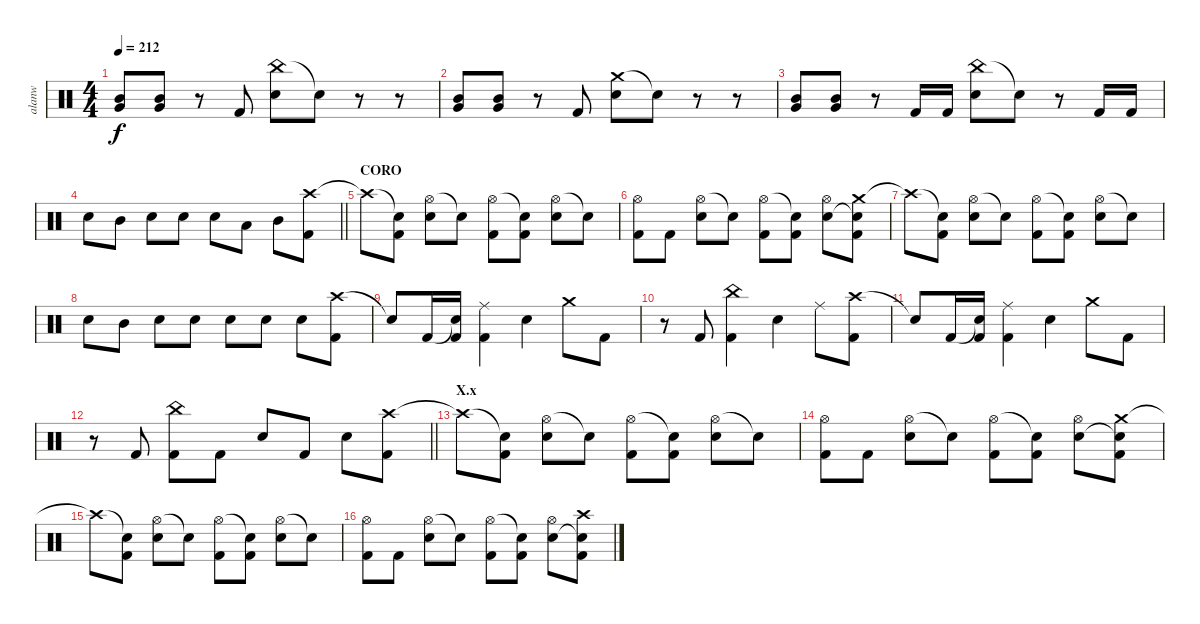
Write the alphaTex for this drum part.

\track ("alanw" "alanw") {instrument percussion}
\staff {score}
\articulation defaults
\ts (4 4)
\tempo 212
\clef neutral
\ks c
("Mid Tom (hit)" "Very Low Tom (hit)").8{dy f} ("Mid Tom (hit)" "Very Low Tom (hit)").8 r.8 "Kick (hit) 2".8 ("China (hit)" "Electric Snare (hit)").8 "Snare (hit)"{t}.8 r.8 r.8 |
("Mid Tom (hit)" "Very Low Tom (hit)").8 ("Mid Tom (hit)" "Very Low Tom (hit)").8 r.8 "Kick (hit) 2".8 ("Crash medium (hit)" "Electric Snare (hit)").8 "Snare (hit)"{t}.8 r.8 r.8 |
("Mid Tom (hit)" "Very Low Tom (hit)").8 ("Mid Tom (hit)" "Very Low Tom (hit)").8 r.8 "Kick (hit) 2".16 "Kick (hit) 2".16 ("China (hit)" "Electric Snare (hit)").8 "Snare (hit)"{t}.8 r.8 "Kick (hit) 2".16 "Kick (hit) 2".16 |
\barLineRight lightlight "Electric Snare (hit)".8 "Mid Tom (hit)".8 "Electric Snare (hit)".8 "Electric Snare (hit)".8 "Electric Snare (hit)".8 "Low Tom (hit)".8 "Mid Tom (hit)".8
("Crash high (hit)" "Kick (hit) 2").8 |
\section ("" "CORO")
"Crash high (hit)"{t}.8 ("Snare (hit)"{t} "Kick (hit) 2").8 ("Hi-Hat (open)" "Electric Snare (hit)").8 "Snare (hit)"{t}.8 ("Hi-Hat (open)" "Kick (hit) 2").8 ("Snare (hit)"{t} "Kick (hit) 2").8 ("Hi-Hat (open)" "Electric Snare (hit)").8 "Snare (hit)"{t}.8 |
("Hi-Hat (open)" "Kick (hit) 2").8 "Kick (hit) 2".8 ("Hi-Hat (open)" "Electric Snare (hit)").8 "Snare (hit)"{t}.8 ("Hi-Hat (open)" "Kick (hit) 2").8 ("Snare (hit)"{t} "Kick (hit) 2").8 ("Hi-Hat (open)" "Electric Snare (hit)").8 ("Crash medium (hit)" "Snare (hit)"{t} "Kick (hit) 2").8 |
"Crash high (hit)"{t}.8 ("Snare (hit)"{t} "Kick (hit) 2").8 ("Hi-Hat (open)" "Electric Snare (hit)").8 "Snare (hit)"{t}.8 ("Hi-Hat (open)" "Kick (hit) 2").8 ("Snare (hit)"{t} "Kick (hit) 2").8 ("Hi-Hat (open)" "Electric Snare (hit)").8 "Snare (hit)"{t}.8 |
"Electric Snare (hit)".8 "Mid Tom (hit)".8 "Electric Snare (hit)".8 "Electric Snare (hit)".8 "Electric Snare (hit)".8 "Electric Snare (hit)".8 "Electric Snare (hit)".8 ("Crash high (hit)" "Kick (hit) 2").8 |
"Snare (hit)"{t}.8 "Kick (hit) 2".16 ("Snare (hit)"{t} "Kick (hit) 2").16 ("Ride (middle)" "Kick (hit) 2").4 "Electric Snare (hit)".4 "Crash medium (hit)".8 "Kick (hit) 2".8 |
r.8 "Kick (hit) 2".8 ("China (hit)" "Kick (hit) 2").4 "Electric Snare (hit)".4 "Ride (middle)".8 ("Crash high (hit)" "Kick (hit) 2").8 |
"Snare (hit)"{t}.8 "Kick (hit) 2".16 ("Snare (hit)"{t} "Kick (hit) 2").16 ("Ride (middle)" "Kick (hit) 2").4 "Electric Snare (hit)".4 "Crash medium (hit)".8 "Kick (hit) 2".8 |
\barLineRight lightlight
r.8 "Kick (hit) 2".8 ("China (hit)" "Kick (hit) 2").8 "Kick (hit) 2".8 "Electric Snare (hit)".8 "Kick (hit) 2".8 "Electric Snare (hit)".8 ("Crash high (hit)" "Kick (hit) 2").8 |
\section ("" "X.x")
"Crash high (hit)"{t}.8 ("Snare (hit)"{t} "Kick (hit) 2").8 ("Hi-Hat (open)" "Electric Snare (hit)").8 "Snare (hit)"{t}.8 ("Hi-Hat (open)" "Kick (hit) 2").8 ("Snare (hit)"{t} "Kick (hit) 2").8 ("Hi-Hat (open)" "Electric Snare (hit)").8 "Snare (hit)"{t}.8 |
("Hi-Hat (open)" "Kick (hit) 2").8 "Kick (hit) 2".8 ("Hi-Hat (open)" "Electric Snare (hit)").8 "Snare (hit)"{t}.8 ("Hi-Hat (open)" "Kick (hit) 2").8 ("Snare (hit)"{t} "Kick (hit) 2").8 ("Hi-Hat (open)" "Electric Snare (hit)").8 ("Crash medium (hit)" "Snare (hit)"{t} "Kick (hit) 2").8 |
"Crash high (hit)"{t}.8 ("Snare (hit)"{t} "Kick (hit) 2").8 ("Hi-Hat (open)" "Electric Snare (hit)").8 "Snare (hit)"{t}.8 ("Hi-Hat (open)" "Kick (hit) 2").8 ("Snare (hit)"{t} "Kick (hit) 2").8 ("Hi-Hat (open)" "Electric Snare (hit)").8 "Snare (hit)"{t}.8 |
("Hi-Hat (open)" "Kick (hit) 2").8 "Kick (hit) 2".8 ("Hi-Hat (open)" "Electric Snare (hit)").8 "Snare (hit)"{t}.8 ("Hi-Hat (open)" "Kick (hit) 2").8 ("Snare (hit)"{t} "Kick (hit) 2").8 ("Hi-Hat (open)" "Electric Snare (hit)").8 ("Crash high (hit)" "Snare (hit)"{t} "Kick (hit) 2").8
